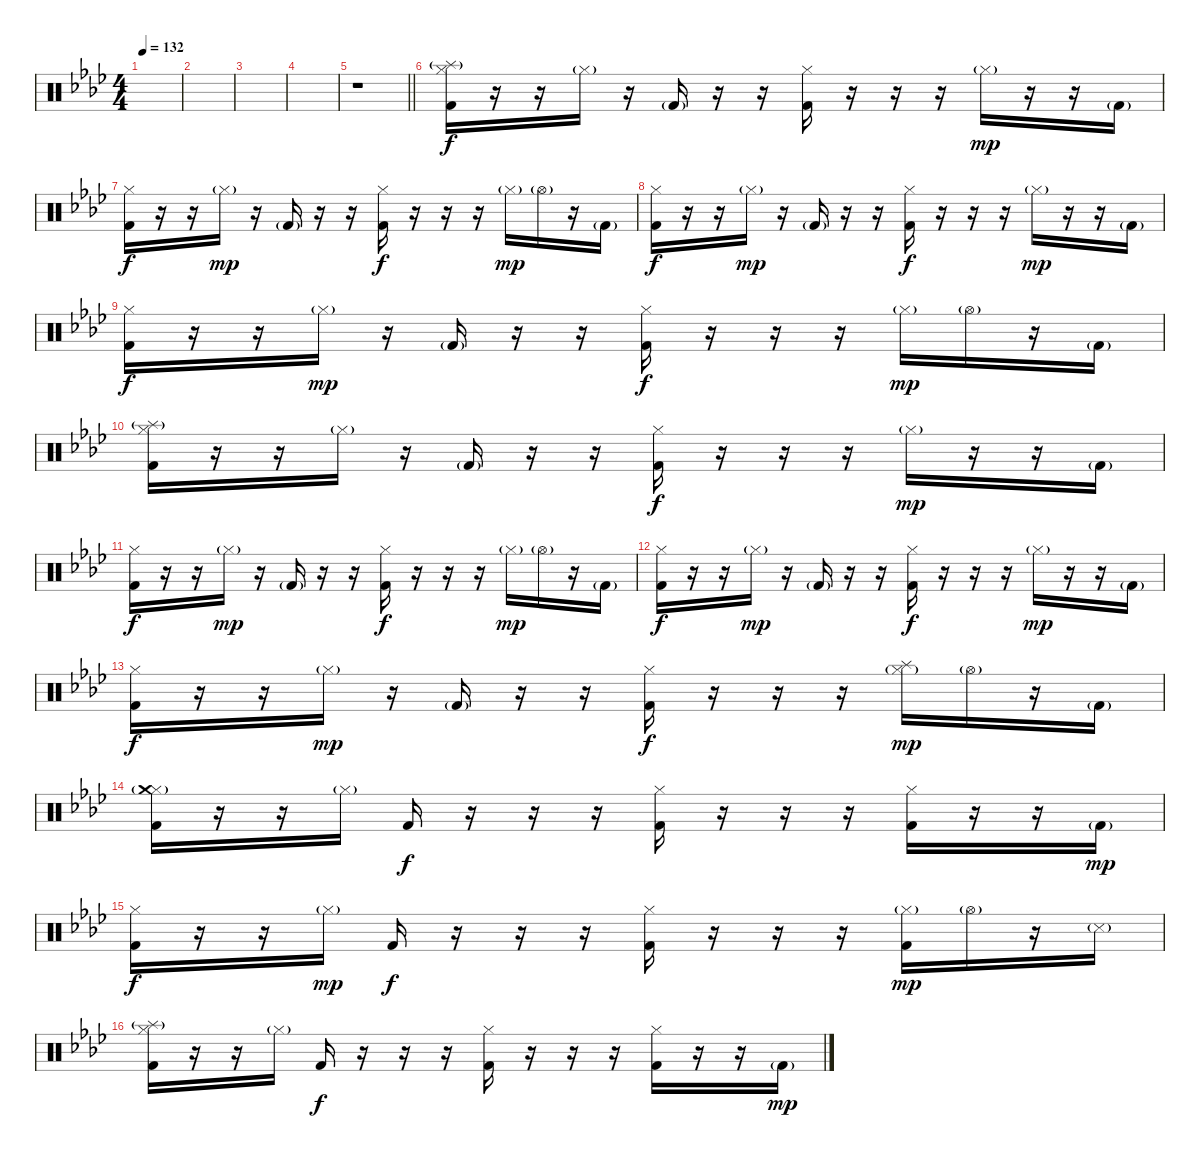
\track "" {instrument percussion}
\staff {score}
\articulation defaults
\ts (4 4)
\tempo 132
\clef neutral
\ks fminor
|
|
|
|
\barLineRight lightlight
r.1{volume 0} |
("Kick (hit) 2" "Hi-Hat (closed)" "Splash (hit)"{g}).16{volume 8} r.16 r.16 "Hi-Hat (closed)"{g}.16 r.16 "Kick (hit) 2"{g}.16 r.16 r.16 ("Kick (hit) 2" "Hi-Hat (closed)").16{dy f} r.16 r.16 r.16 "Hi-Hat (closed)"{g}.16{dy mp} r.16 r.16 "Kick (hit) 2"{g}.16 |
("Kick (hit) 2" "Hi-Hat (closed)").16{dy f} r.16 r.16 "Hi-Hat (closed)"{g}.16{dy mp} r.16 "Kick (hit) 2"{g}.16 r.16 r.16 ("Kick (hit) 2" "Hi-Hat (closed)").16{dy f} r.16 r.16 r.16 "Hi-Hat (closed)"{g}.16{dy mp} "Hi-Hat (open)"{g}.16 r.16 "Kick (hit) 2"{g}.16 |
("Kick (hit) 2" "Hi-Hat (closed)").16{dy f} r.16 r.16 "Hi-Hat (closed)"{g}.16{dy mp} r.16 "Kick (hit) 2"{g}.16 r.16 r.16 ("Kick (hit) 2" "Hi-Hat (closed)").16{dy f} r.16 r.16 r.16 "Hi-Hat (closed)"{g}.16{dy mp} r.16 r.16 "Kick (hit) 2"{g}.16 |
("Kick (hit) 2" "Hi-Hat (closed)").16{dy f} r.16 r.16 "Hi-Hat (closed)"{g}.16{dy mp} r.16 "Kick (hit) 2"{g}.16 r.16 r.16 ("Kick (hit) 2" "Hi-Hat (closed)").16{dy f} r.16 r.16 r.16 "Hi-Hat (closed)"{g}.16{dy mp} "Hi-Hat (open)"{g}.16 r.16 "Kick (hit) 2"{g}.16 |
("Kick (hit) 2" "Hi-Hat (closed)" "Splash (hit)"{g}).16{volume 11} r.16 r.16 "Hi-Hat (closed)"{g}.16 r.16 "Kick (hit) 2"{g}.16 r.16 r.16 ("Kick (hit) 2" "Hi-Hat (closed)").16{dy f} r.16 r.16 r.16 "Hi-Hat (closed)"{g}.16{dy mp} r.16 r.16 "Kick (hit) 2"{g}.16 |
("Kick (hit) 2" "Hi-Hat (closed)").16{dy f} r.16 r.16 "Hi-Hat (closed)"{g}.16{dy mp} r.16 "Kick (hit) 2"{g}.16 r.16 r.16 ("Kick (hit) 2" "Hi-Hat (closed)").16{dy f} r.16 r.16 r.16 "Hi-Hat (closed)"{g}.16{dy mp} "Hi-Hat (open)"{g}.16 r.16 "Kick (hit) 2"{g}.16 |
("Kick (hit) 2" "Hi-Hat (closed)").16{dy f} r.16 r.16 "Hi-Hat (closed)"{g}.16{dy mp} r.16 "Kick (hit) 2"{g}.16 r.16 r.16 ("Kick (hit) 2" "Hi-Hat (closed)").16{dy f} r.16 r.16 r.16 "Hi-Hat (closed)"{g}.16{dy mp} r.16 r.16 "Kick (hit) 2"{g}.16 |
("Kick (hit) 2" "Hi-Hat (closed)").16{dy f} r.16 r.16 "Hi-Hat (closed)"{g}.16{dy mp} r.16 "Kick (hit) 2"{g}.16 r.16 r.16 ("Kick (hit) 2" "Hi-Hat (closed)").16{dy f} r.16 r.16 r.16 ("Hi-Hat (closed)"{g} "Splash (hit)").16{dy mp} "Hi-Hat (open)"{g}.16 r.16 "Kick (hit) 2"{g}.16 |
("Kick (hit) 2" "Hi-Hat (closed)" "Crash medium (hit)"{g}).16 r.16 r.16 "Hi-Hat (closed)"{g}.16 "Kick (hit) 2".16{dy f} r.16 r.16 r.16 ("Kick (hit) 2" "Hi-Hat (closed)").16 r.16 r.16 r.16 ("Kick (hit) 2" "Hi-Hat (closed)").16 r.16 r.16 "Kick (hit) 2"{g}.16{dy mp} |
("Kick (hit) 2" "Hi-Hat (closed)").16{dy f} r.16 r.16 "Hi-Hat (closed)"{g}.16{dy mp} "Kick (hit) 2".16{dy f} r.16 r.16 r.16 ("Kick (hit) 2" "Hi-Hat (closed)").16 r.16 r.16 r.16 ("Kick (hit) 2" "Hi-Hat (closed)"{g}).16{dy mp} "Hi-Hat (open)"{g}.16 r.16 "Snare (side stick) 3"{g}.16 |
("Kick (hit) 2" "Hi-Hat (closed)" "Splash (hit)"{g}).16 r.16 r.16 "Hi-Hat (closed)"{g}.16 "Kick (hit) 2".16{dy f} r.16 r.16 r.16 ("Kick (hit) 2" "Hi-Hat (closed)").16 r.16 r.16 r.16 ("Kick (hit) 2" "Hi-Hat (closed)").16 r.16 r.16 "Kick (hit) 2"{g}.16{dy mp}
